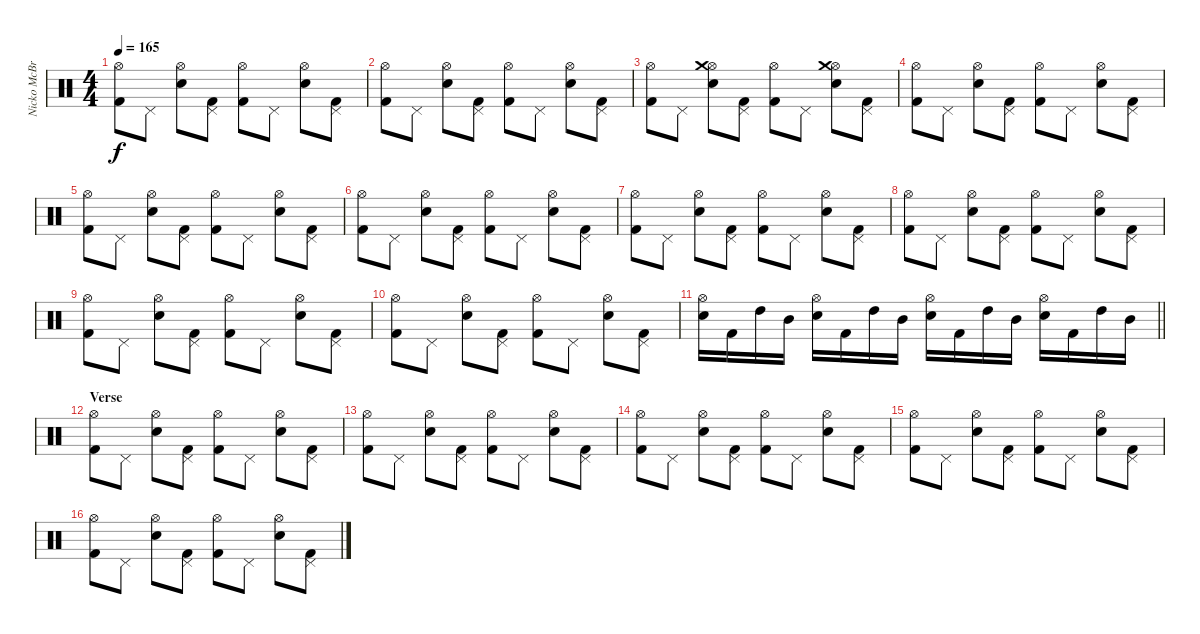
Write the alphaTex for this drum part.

\track ("Nicko McBrain" "Nicko McBr") {instrument percussion}
\staff {score}
\articulation defaults
\ts (4 4)
\tempo 165
\clef neutral
\ks c
("Kick (hit) 2" "Hi-Hat (open)").8{dy f} "Pedal Hi-Hat (hit)".8 ("Snare (hit) 2" "Hi-Hat (open)").8 ("Kick (hit) 2" "Pedal Hi-Hat (hit)").8 ("Kick (hit) 2" "Hi-Hat (open)").8 "Pedal Hi-Hat (hit)".8 ("Snare (hit) 2" "Hi-Hat (open)").8 ("Kick (hit) 2" "Pedal Hi-Hat (hit)").8 |
("Kick (hit) 2" "Hi-Hat (open)").8 "Pedal Hi-Hat (hit)".8 ("Snare (hit) 2" "Hi-Hat (open)").8 ("Kick (hit) 2" "Pedal Hi-Hat (hit)").8 ("Kick (hit) 2" "Hi-Hat (open)").8 "Pedal Hi-Hat (hit)".8 ("Snare (hit) 2" "Hi-Hat (open)").8 ("Kick (hit) 2" "Pedal Hi-Hat (hit)").8 |
("Kick (hit) 2" "Hi-Hat (open)").8 "Pedal Hi-Hat (hit)".8 ("Snare (hit) 2" "Hi-Hat (open)" "Crash medium (hit)").8 ("Kick (hit) 2" "Pedal Hi-Hat (hit)").8 ("Kick (hit) 2" "Hi-Hat (open)").8 "Pedal Hi-Hat (hit)".8 ("Snare (hit) 2" "Hi-Hat (open)" "Crash medium (hit)").8 ("Kick (hit) 2" "Pedal Hi-Hat (hit)").8 |
("Kick (hit) 2" "Hi-Hat (open)").8 "Pedal Hi-Hat (hit)".8 ("Snare (hit) 2" "Hi-Hat (open)").8 ("Kick (hit) 2" "Pedal Hi-Hat (hit)").8 ("Kick (hit) 2" "Hi-Hat (open)").8 "Pedal Hi-Hat (hit)".8 ("Snare (hit) 2" "Hi-Hat (open)").8 ("Kick (hit) 2" "Pedal Hi-Hat (hit)").8 |
("Kick (hit) 2" "Hi-Hat (open)").8 "Pedal Hi-Hat (hit)".8 ("Snare (hit) 2" "Hi-Hat (open)").8 ("Kick (hit) 2" "Pedal Hi-Hat (hit)").8 ("Kick (hit) 2" "Hi-Hat (open)").8 "Pedal Hi-Hat (hit)".8 ("Snare (hit) 2" "Hi-Hat (open)").8 ("Kick (hit) 2" "Pedal Hi-Hat (hit)").8 |
("Kick (hit) 2" "Hi-Hat (open)").8 "Pedal Hi-Hat (hit)".8 ("Snare (hit) 2" "Hi-Hat (open)").8 ("Kick (hit) 2" "Pedal Hi-Hat (hit)").8 ("Kick (hit) 2" "Hi-Hat (open)").8 "Pedal Hi-Hat (hit)".8 ("Snare (hit) 2" "Hi-Hat (open)").8 ("Kick (hit) 2" "Pedal Hi-Hat (hit)").8 |
("Kick (hit) 2" "Hi-Hat (open)").8 "Pedal Hi-Hat (hit)".8 ("Snare (hit) 2" "Hi-Hat (open)").8 ("Kick (hit) 2" "Pedal Hi-Hat (hit)").8 ("Kick (hit) 2" "Hi-Hat (open)").8 "Pedal Hi-Hat (hit)".8 ("Snare (hit) 2" "Hi-Hat (open)").8 ("Kick (hit) 2" "Pedal Hi-Hat (hit)").8 |
("Kick (hit) 2" "Hi-Hat (open)").8 "Pedal Hi-Hat (hit)".8 ("Snare (hit) 2" "Hi-Hat (open)").8 ("Kick (hit) 2" "Pedal Hi-Hat (hit)").8 ("Kick (hit) 2" "Hi-Hat (open)").8 "Pedal Hi-Hat (hit)".8 ("Snare (hit) 2" "Hi-Hat (open)").8 ("Kick (hit) 2" "Pedal Hi-Hat (hit)").8 |
("Kick (hit) 2" "Hi-Hat (open)").8 "Pedal Hi-Hat (hit)".8 ("Snare (hit) 2" "Hi-Hat (open)").8 ("Kick (hit) 2" "Pedal Hi-Hat (hit)").8 ("Kick (hit) 2" "Hi-Hat (open)").8 "Pedal Hi-Hat (hit)".8 ("Snare (hit) 2" "Hi-Hat (open)").8 ("Kick (hit) 2" "Pedal Hi-Hat (hit)").8 |
("Kick (hit) 2" "Hi-Hat (open)").8 "Pedal Hi-Hat (hit)".8 ("Snare (hit) 2" "Hi-Hat (open)").8 ("Kick (hit) 2" "Pedal Hi-Hat (hit)").8 ("Kick (hit) 2" "Hi-Hat (open)").8 "Pedal Hi-Hat (hit)".8 ("Snare (hit) 2" "Hi-Hat (open)").8 ("Kick (hit) 2" "Pedal Hi-Hat (hit)").8 |
\barLineRight lightlight
("Snare (hit) 2" "Hi-Hat (open)").16 "Kick (hit) 2".16 "High Tom (hit)".16 "Mid Tom (hit)".16 ("Snare (hit) 2" "Hi-Hat (open)").16 "Kick (hit) 2".16 "High Tom (hit)".16 "Mid Tom (hit)".16 ("Snare (hit) 2" "Hi-Hat (open)").16 "Kick (hit) 2".16 "High Tom (hit)".16 "Mid Tom (hit)".16 ("Snare (hit) 2" "Hi-Hat (open)").16 "Kick (hit) 2".16 "High Tom (hit)".16 "Mid Tom (hit)".16 |
\section ("" "Verse")
("Kick (hit) 2" "Hi-Hat (open)").8 "Pedal Hi-Hat (hit)".8 ("Snare (hit) 2" "Hi-Hat (open)").8 ("Kick (hit) 2" "Pedal Hi-Hat (hit)").8 ("Kick (hit) 2" "Hi-Hat (open)").8 "Pedal Hi-Hat (hit)".8 ("Snare (hit) 2" "Hi-Hat (open)").8 ("Kick (hit) 2" "Pedal Hi-Hat (hit)").8 |
("Kick (hit) 2" "Hi-Hat (open)").8 "Pedal Hi-Hat (hit)".8 ("Snare (hit) 2" "Hi-Hat (open)").8 ("Kick (hit) 2" "Pedal Hi-Hat (hit)").8 ("Kick (hit) 2" "Hi-Hat (open)").8 "Pedal Hi-Hat (hit)".8 ("Snare (hit) 2" "Hi-Hat (open)").8 ("Kick (hit) 2" "Pedal Hi-Hat (hit)").8 |
("Kick (hit) 2" "Hi-Hat (open)").8 "Pedal Hi-Hat (hit)".8 ("Snare (hit) 2" "Hi-Hat (open)").8 ("Kick (hit) 2" "Pedal Hi-Hat (hit)").8 ("Kick (hit) 2" "Hi-Hat (open)").8 "Pedal Hi-Hat (hit)".8 ("Snare (hit) 2" "Hi-Hat (open)").8 ("Kick (hit) 2" "Pedal Hi-Hat (hit)").8 |
("Kick (hit) 2" "Hi-Hat (open)").8 "Pedal Hi-Hat (hit)".8 ("Snare (hit) 2" "Hi-Hat (open)").8 ("Kick (hit) 2" "Pedal Hi-Hat (hit)").8 ("Kick (hit) 2" "Hi-Hat (open)").8 "Pedal Hi-Hat (hit)".8 ("Snare (hit) 2" "Hi-Hat (open)").8 ("Kick (hit) 2" "Pedal Hi-Hat (hit)").8 |
("Kick (hit) 2" "Hi-Hat (open)").8 "Pedal Hi-Hat (hit)".8 ("Snare (hit) 2" "Hi-Hat (open)").8 ("Kick (hit) 2" "Pedal Hi-Hat (hit)").8 ("Kick (hit) 2" "Hi-Hat (open)").8 "Pedal Hi-Hat (hit)".8 ("Snare (hit) 2" "Hi-Hat (open)").8 ("Kick (hit) 2" "Pedal Hi-Hat (hit)").8
